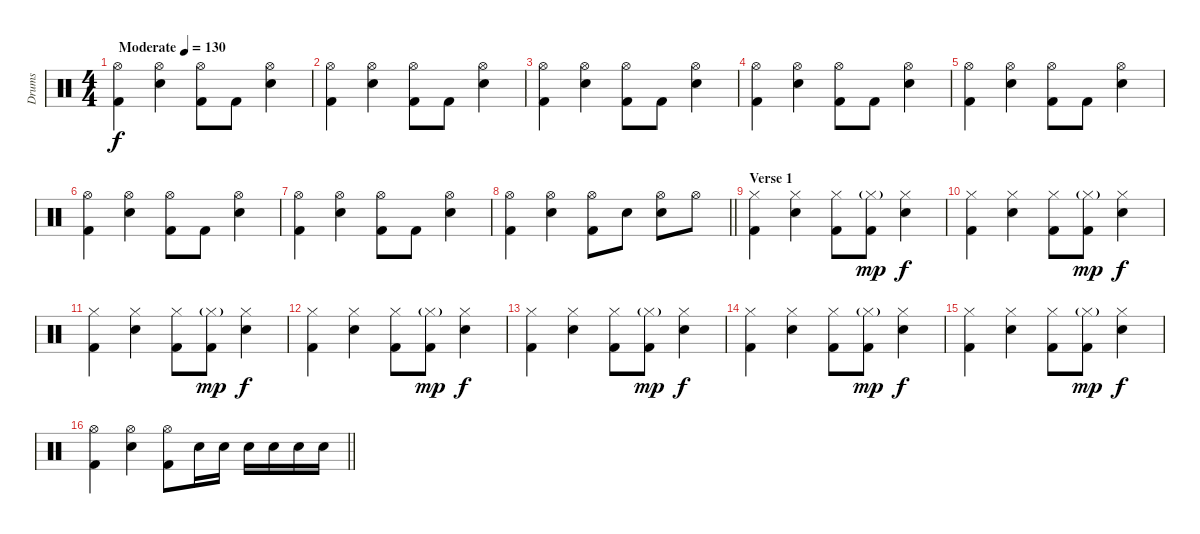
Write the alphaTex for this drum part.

\track ("Drums" "Drums") {instrument percussion}
\staff {score}
\articulation defaults
\ts (4 4)
\tempo (130 "Moderate")
\clef neutral
\ks c
("Hi-Hat (open)" "Kick (hit) 2").4{dy f} ("Hi-Hat (open)" "Electric Snare (hit)").4 ("Hi-Hat (open)" "Kick (hit) 2").8 "Kick (hit) 2".8 ("Hi-Hat (open)" "Electric Snare (hit)").4 |
("Hi-Hat (open)" "Kick (hit) 2").4 ("Hi-Hat (open)" "Electric Snare (hit)").4 ("Hi-Hat (open)" "Kick (hit) 2").8 "Kick (hit) 2".8 ("Hi-Hat (open)" "Electric Snare (hit)").4 |
("Hi-Hat (open)" "Kick (hit) 2").4 ("Hi-Hat (open)" "Electric Snare (hit)").4 ("Hi-Hat (open)" "Kick (hit) 2").8 "Kick (hit) 2".8 ("Hi-Hat (open)" "Electric Snare (hit)").4 |
("Hi-Hat (open)" "Kick (hit) 2").4 ("Hi-Hat (open)" "Electric Snare (hit)").4 ("Hi-Hat (open)" "Kick (hit) 2").8 "Kick (hit) 2".8 ("Hi-Hat (open)" "Electric Snare (hit)").4 |
("Hi-Hat (open)" "Kick (hit) 2").4 ("Hi-Hat (open)" "Electric Snare (hit)").4 ("Hi-Hat (open)" "Kick (hit) 2").8 "Kick (hit) 2".8 ("Hi-Hat (open)" "Electric Snare (hit)").4 |
("Hi-Hat (open)" "Kick (hit) 2").4 ("Hi-Hat (open)" "Electric Snare (hit)").4 ("Hi-Hat (open)" "Kick (hit) 2").8 "Kick (hit) 2".8 ("Hi-Hat (open)" "Electric Snare (hit)").4 |
("Hi-Hat (open)" "Kick (hit) 2").4 ("Hi-Hat (open)" "Electric Snare (hit)").4 ("Hi-Hat (open)" "Kick (hit) 2").8 "Kick (hit) 2".8 ("Hi-Hat (open)" "Electric Snare (hit)").4 |
\barLineRight lightlight
("Hi-Hat (open)" "Kick (hit) 2").4 ("Hi-Hat (open)" "Electric Snare (hit)").4 ("Hi-Hat (open)" "Kick (hit) 2").8 "Electric Snare (hit)".8 ("Hi-Hat (open)" "Electric Snare (hit)").8 "Hi-Hat (open)".8 |
\section ("" "Verse 1")
("Hi-Hat (closed)" "Kick (hit) 2").4 ("Hi-Hat (closed)" "Electric Snare (hit)").4 ("Hi-Hat (closed)" "Kick (hit) 2").8 ("Hi-Hat (closed)"{g} "Kick (hit) 2").8{dy mp} ("Hi-Hat (closed)" "Electric Snare (hit)").4{dy f} |
("Hi-Hat (closed)" "Kick (hit) 2").4 ("Hi-Hat (closed)" "Electric Snare (hit)").4 ("Hi-Hat (closed)" "Kick (hit) 2").8 ("Hi-Hat (closed)"{g} "Kick (hit) 2").8{dy mp} ("Hi-Hat (closed)" "Electric Snare (hit)").4{dy f} |
("Hi-Hat (closed)" "Kick (hit) 2").4 ("Hi-Hat (closed)" "Electric Snare (hit)").4 ("Hi-Hat (closed)" "Kick (hit) 2").8 ("Hi-Hat (closed)"{g} "Kick (hit) 2").8{dy mp} ("Hi-Hat (closed)" "Electric Snare (hit)").4{dy f} |
("Hi-Hat (closed)" "Kick (hit) 2").4 ("Hi-Hat (closed)" "Electric Snare (hit)").4 ("Hi-Hat (closed)" "Kick (hit) 2").8 ("Hi-Hat (closed)"{g} "Kick (hit) 2").8{dy mp} ("Hi-Hat (closed)" "Electric Snare (hit)").4{dy f} |
("Hi-Hat (closed)" "Kick (hit) 2").4 ("Hi-Hat (closed)" "Electric Snare (hit)").4 ("Hi-Hat (closed)" "Kick (hit) 2").8 ("Hi-Hat (closed)"{g} "Kick (hit) 2").8{dy mp} ("Hi-Hat (closed)" "Electric Snare (hit)").4{dy f} |
("Hi-Hat (closed)" "Kick (hit) 2").4 ("Hi-Hat (closed)" "Electric Snare (hit)").4 ("Hi-Hat (closed)" "Kick (hit) 2").8 ("Hi-Hat (closed)"{g} "Kick (hit) 2").8{dy mp} ("Hi-Hat (closed)" "Electric Snare (hit)").4{dy f} |
("Hi-Hat (closed)" "Kick (hit) 2").4 ("Hi-Hat (closed)" "Electric Snare (hit)").4 ("Hi-Hat (closed)" "Kick (hit) 2").8 ("Hi-Hat (closed)"{g} "Kick (hit) 2").8{dy mp} ("Hi-Hat (closed)" "Electric Snare (hit)").4{dy f} |
\barLineRight lightlight
("Hi-Hat (open)" "Kick (hit) 2").4 ("Hi-Hat (open)" "Electric Snare (hit)").4 ("Hi-Hat (open)" "Kick (hit) 2").8 "Electric Snare (hit)".16 "Electric Snare (hit)".16 "Electric Snare (hit)".16 "Electric Snare (hit)".16 "Electric Snare (hit)".16 "Electric Snare (hit)".16
